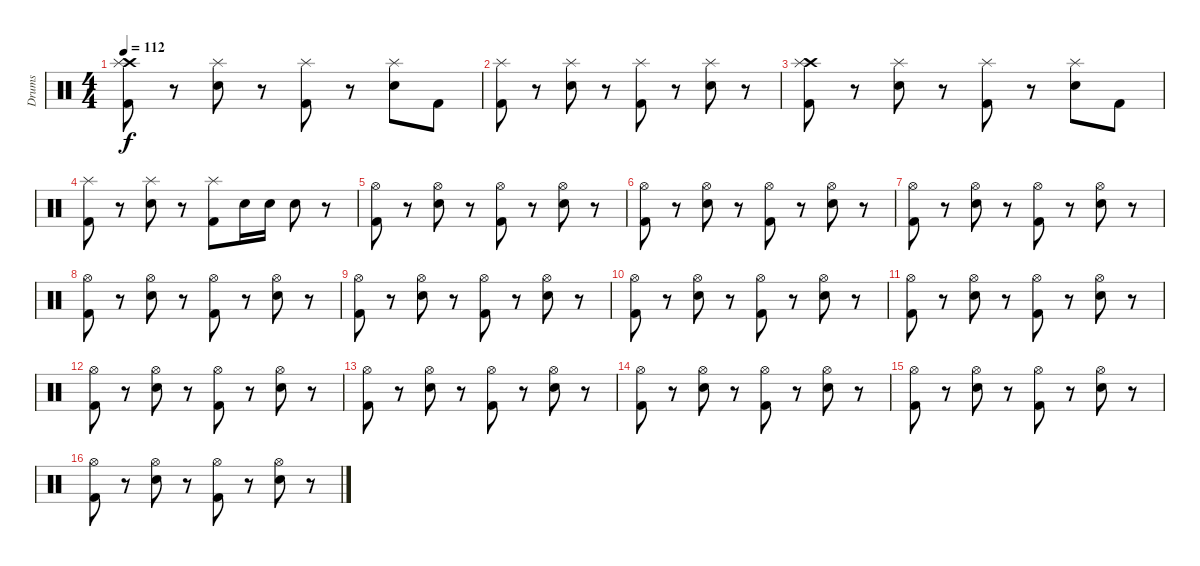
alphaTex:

\track ("Drums" "Drums") {instrument percussion}
\staff {score}
\articulation defaults
\ts (4 4)
\tempo 112
\clef neutral
\ks c
("Crash high (hit)" "Splash (hit)" "Kick (hit) 2").8{dy f} r.8 ("Splash (hit)" "Snare (hit) 2").8 r.8 ("Splash (hit)" "Kick (hit) 2").8 r.8 ("Splash (hit)" "Snare (hit) 2").8 "Kick (hit) 2".8 |
("Splash (hit)" "Kick (hit) 2").8 r.8 ("Splash (hit)" "Snare (hit) 2").8 r.8 ("Splash (hit)" "Kick (hit) 2").8 r.8 ("Splash (hit)" "Snare (hit) 2").8 r.8 |
("Crash high (hit)" "Splash (hit)" "Kick (hit) 2").8 r.8 ("Splash (hit)" "Snare (hit) 2").8 r.8 ("Splash (hit)" "Kick (hit) 2").8 r.8 ("Splash (hit)" "Snare (hit) 2").8 "Kick (hit) 2".8 |
("Splash (hit)" "Kick (hit) 2").8 r.8 ("Splash (hit)" "Snare (hit) 2").8 r.8 ("Splash (hit)" "Kick (hit) 2").8 "Snare (hit) 2".16 "Snare (hit) 2".16 "Snare (hit) 2".8 r.8 |
("Hi-Hat (open)" "Kick (hit) 2").8 r.8 ("Hi-Hat (open)" "Snare (hit) 2").8 r.8 ("Hi-Hat (open)" "Kick (hit) 2").8 r.8 ("Hi-Hat (open)" "Snare (hit) 2").8 r.8 |
("Hi-Hat (open)" "Kick (hit) 2").8 r.8 ("Hi-Hat (open)" "Snare (hit) 2").8 r.8 ("Hi-Hat (open)" "Kick (hit) 2").8 r.8 ("Hi-Hat (open)" "Snare (hit) 2").8 r.8 |
("Hi-Hat (open)" "Kick (hit) 2").8 r.8 ("Hi-Hat (open)" "Snare (hit) 2").8 r.8 ("Hi-Hat (open)" "Kick (hit) 2").8 r.8 ("Hi-Hat (open)" "Snare (hit) 2").8 r.8 |
("Hi-Hat (open)" "Kick (hit) 2").8 r.8 ("Hi-Hat (open)" "Snare (hit) 2").8 r.8 ("Hi-Hat (open)" "Kick (hit) 2").8 r.8 ("Hi-Hat (open)" "Snare (hit) 2").8 r.8 |
("Hi-Hat (open)" "Kick (hit) 2").8 r.8 ("Hi-Hat (open)" "Snare (hit) 2").8 r.8 ("Hi-Hat (open)" "Kick (hit) 2").8 r.8 ("Hi-Hat (open)" "Snare (hit) 2").8 r.8 |
("Hi-Hat (open)" "Kick (hit) 2").8 r.8 ("Hi-Hat (open)" "Snare (hit) 2").8 r.8 ("Hi-Hat (open)" "Kick (hit) 2").8 r.8 ("Hi-Hat (open)" "Snare (hit) 2").8 r.8 |
("Hi-Hat (open)" "Kick (hit) 2").8 r.8 ("Hi-Hat (open)" "Snare (hit) 2").8 r.8 ("Hi-Hat (open)" "Kick (hit) 2").8 r.8 ("Hi-Hat (open)" "Snare (hit) 2").8 r.8 |
("Hi-Hat (open)" "Kick (hit) 2").8 r.8 ("Hi-Hat (open)" "Snare (hit) 2").8 r.8 ("Hi-Hat (open)" "Kick (hit) 2").8 r.8 ("Hi-Hat (open)" "Snare (hit) 2").8 r.8 |
("Hi-Hat (open)" "Kick (hit) 2").8 r.8 ("Hi-Hat (open)" "Snare (hit) 2").8 r.8 ("Hi-Hat (open)" "Kick (hit) 2").8 r.8 ("Hi-Hat (open)" "Snare (hit) 2").8 r.8 |
("Hi-Hat (open)" "Kick (hit) 2").8 r.8 ("Hi-Hat (open)" "Snare (hit) 2").8 r.8 ("Hi-Hat (open)" "Kick (hit) 2").8 r.8 ("Hi-Hat (open)" "Snare (hit) 2").8 r.8 |
("Hi-Hat (open)" "Kick (hit) 2").8 r.8 ("Hi-Hat (open)" "Snare (hit) 2").8 r.8 ("Hi-Hat (open)" "Kick (hit) 2").8 r.8 ("Hi-Hat (open)" "Snare (hit) 2").8 r.8 |
("Hi-Hat (open)" "Kick (hit) 2").8 r.8 ("Hi-Hat (open)" "Snare (hit) 2").8 r.8 ("Hi-Hat (open)" "Kick (hit) 2").8 r.8 ("Hi-Hat (open)" "Snare (hit) 2").8 r.8
